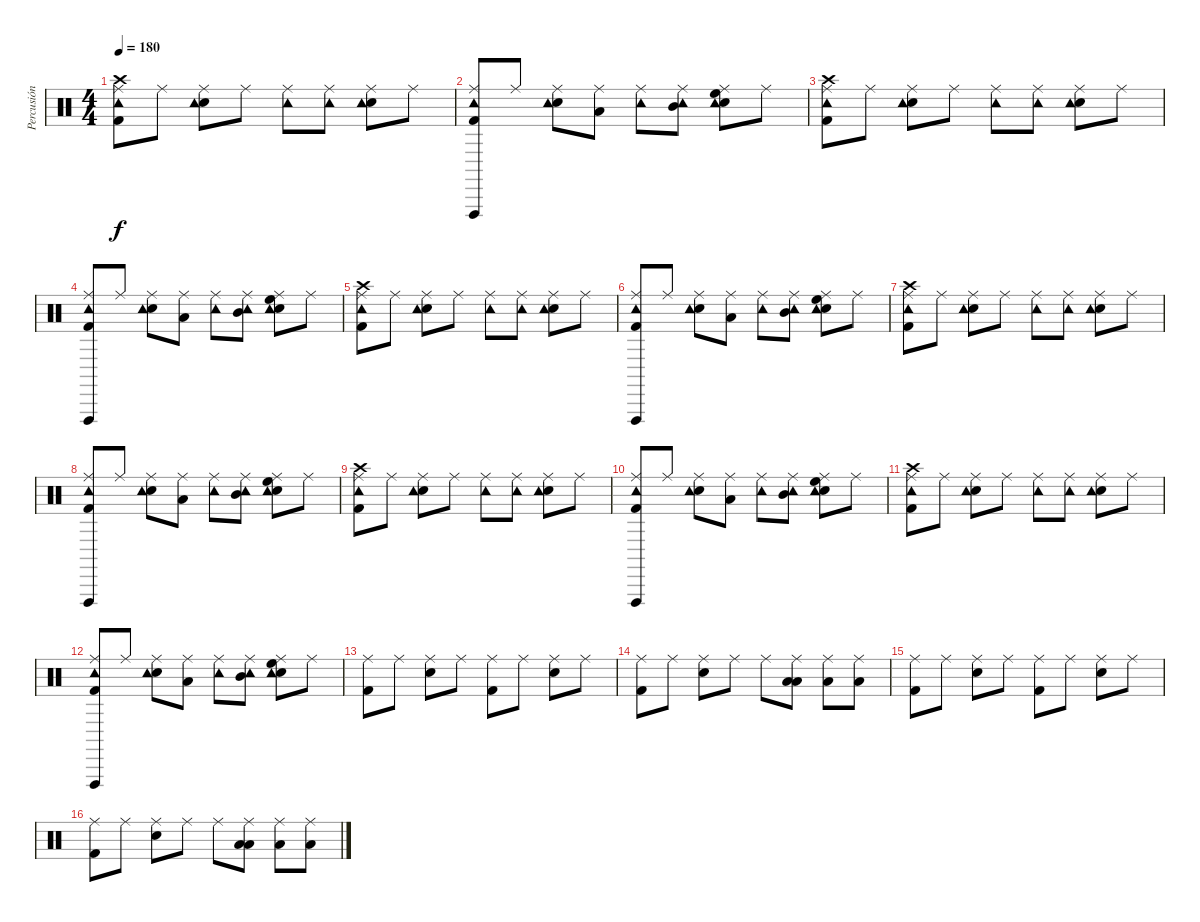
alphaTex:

\track ("Percusión" "Percusión") {instrument percussion}
\staff {score}
\articulation defaults
\ts (4 4)
\tempo 180
\clef neutral
\ks c
("Crash high (hit)" "Ride (middle)" "Kick (hit) 2" "Tambourine (hit)").8{dy f} "Ride (middle)".8 ("Electric Snare (hit)" "Ride (middle)" "Tambourine (hit)").8 "Ride (middle)".8 ("Ride (middle)" "Tambourine (hit)").8 ("Ride (middle)" "Tambourine (hit)").8 ("Electric Snare (hit)" "Ride (middle)" "Tambourine (hit)").8 "Ride (middle)".8 |
("Kick (hit) 2" "Tambourine (hit)" "Ride (middle)" "Vibraslap (hit)").8 "Ride (middle)".8 ("Electric Snare (hit)" "Ride (middle)" "Tambourine (hit)").8 ("Ride (middle)" "Low Tom (hit)").8 ("Ride (middle)" "Tambourine (hit)").8 ("Ride (middle)" "Tambourine (hit)" "Mid Tom (hit)").8 ("Electric Snare (hit)" "Ride (middle)" "Tambourine (hit)" "High Floor Tom (hit)").8 "Ride (middle)".8 |
("Crash high (hit)" "Ride (middle)" "Kick (hit) 2" "Tambourine (hit)").8 "Ride (middle)".8 ("Electric Snare (hit)" "Ride (middle)" "Tambourine (hit)").8 "Ride (middle)".8 ("Ride (middle)" "Tambourine (hit)").8 ("Ride (middle)" "Tambourine (hit)").8 ("Electric Snare (hit)" "Ride (middle)" "Tambourine (hit)").8 "Ride (middle)".8 |
("Kick (hit) 2" "Tambourine (hit)" "Ride (middle)" "Vibraslap (hit)").8 "Ride (middle)".8 ("Electric Snare (hit)" "Ride (middle)" "Tambourine (hit)").8 ("Ride (middle)" "Low Tom (hit)").8 ("Ride (middle)" "Tambourine (hit)").8 ("Ride (middle)" "Tambourine (hit)" "Mid Tom (hit)").8 ("Electric Snare (hit)" "Ride (middle)" "Tambourine (hit)" "High Floor Tom (hit)").8 "Ride (middle)".8 |
("Crash high (hit)" "Ride (middle)" "Kick (hit) 2" "Tambourine (hit)").8 "Ride (middle)".8 ("Electric Snare (hit)" "Ride (middle)" "Tambourine (hit)").8 "Ride (middle)".8 ("Ride (middle)" "Tambourine (hit)").8 ("Ride (middle)" "Tambourine (hit)").8 ("Electric Snare (hit)" "Ride (middle)" "Tambourine (hit)").8 "Ride (middle)".8 |
("Kick (hit) 2" "Tambourine (hit)" "Ride (middle)" "Vibraslap (hit)").8 "Ride (middle)".8 ("Electric Snare (hit)" "Ride (middle)" "Tambourine (hit)").8 ("Ride (middle)" "Low Tom (hit)").8 ("Ride (middle)" "Tambourine (hit)").8 ("Ride (middle)" "Tambourine (hit)" "Mid Tom (hit)").8 ("Electric Snare (hit)" "Ride (middle)" "Tambourine (hit)" "High Floor Tom (hit)").8 "Ride (middle)".8 |
("Crash high (hit)" "Ride (middle)" "Kick (hit) 2" "Tambourine (hit)").8 "Ride (middle)".8 ("Electric Snare (hit)" "Ride (middle)" "Tambourine (hit)").8 "Ride (middle)".8 ("Ride (middle)" "Tambourine (hit)").8 ("Ride (middle)" "Tambourine (hit)").8 ("Electric Snare (hit)" "Ride (middle)" "Tambourine (hit)").8 "Ride (middle)".8 |
("Kick (hit) 2" "Tambourine (hit)" "Ride (middle)" "Vibraslap (hit)").8 "Ride (middle)".8 ("Electric Snare (hit)" "Ride (middle)" "Tambourine (hit)").8 ("Ride (middle)" "Low Tom (hit)").8 ("Ride (middle)" "Tambourine (hit)").8 ("Ride (middle)" "Tambourine (hit)" "Mid Tom (hit)").8 ("Electric Snare (hit)" "Ride (middle)" "Tambourine (hit)" "High Floor Tom (hit)").8 "Ride (middle)".8 |
("Crash high (hit)" "Ride (middle)" "Kick (hit) 2" "Tambourine (hit)").8 "Ride (middle)".8 ("Electric Snare (hit)" "Ride (middle)" "Tambourine (hit)").8 "Ride (middle)".8 ("Ride (middle)" "Tambourine (hit)").8 ("Ride (middle)" "Tambourine (hit)").8 ("Electric Snare (hit)" "Ride (middle)" "Tambourine (hit)").8 "Ride (middle)".8 |
("Kick (hit) 2" "Tambourine (hit)" "Ride (middle)" "Vibraslap (hit)").8 "Ride (middle)".8 ("Electric Snare (hit)" "Ride (middle)" "Tambourine (hit)").8 ("Ride (middle)" "Low Tom (hit)").8 ("Ride (middle)" "Tambourine (hit)").8 ("Ride (middle)" "Tambourine (hit)" "Mid Tom (hit)").8 ("Electric Snare (hit)" "Ride (middle)" "Tambourine (hit)" "High Floor Tom (hit)").8 "Ride (middle)".8 |
("Crash high (hit)" "Ride (middle)" "Kick (hit) 2" "Tambourine (hit)").8 "Ride (middle)".8 ("Electric Snare (hit)" "Ride (middle)" "Tambourine (hit)").8 "Ride (middle)".8 ("Ride (middle)" "Tambourine (hit)").8 ("Ride (middle)" "Tambourine (hit)").8 ("Electric Snare (hit)" "Ride (middle)" "Tambourine (hit)").8 "Ride (middle)".8 |
("Kick (hit) 2" "Tambourine (hit)" "Ride (middle)" "Vibraslap (hit)").8 "Ride (middle)".8 ("Electric Snare (hit)" "Ride (middle)" "Tambourine (hit)").8 ("Ride (middle)" "Low Tom (hit)").8 ("Ride (middle)" "Tambourine (hit)").8 ("Ride (middle)" "Tambourine (hit)" "Mid Tom (hit)").8 ("Electric Snare (hit)" "Ride (middle)" "Tambourine (hit)" "High Floor Tom (hit)").8 "Ride (middle)".8 |
("Kick (hit) 2" "Ride (middle)").8 "Ride (middle)".8 ("Electric Snare (hit)" "Ride (middle)").8 "Ride (middle)".8 ("Kick (hit) 2" "Ride (middle)").8 "Ride (middle)".8 ("Electric Snare (hit)" "Ride (middle)").8 "Ride (middle)".8 |
("Kick (hit) 2" "Ride (middle)").8 "Ride (middle)".8 ("Electric Snare (hit)" "Ride (middle)").8 "Ride (middle)".8 "Ride (middle)".8 ("Low Floor Tom (hit)" "Ride (middle)" "Low Tom (hit)").8 ("Ride (middle)" "Low Tom (hit)").8 ("Ride (middle)" "Low Tom (hit)").8 |
("Kick (hit) 2" "Ride (middle)").8 "Ride (middle)".8 ("Electric Snare (hit)" "Ride (middle)").8 "Ride (middle)".8 ("Kick (hit) 2" "Ride (middle)").8 "Ride (middle)".8 ("Electric Snare (hit)" "Ride (middle)").8 "Ride (middle)".8 |
("Kick (hit) 2" "Ride (middle)").8 "Ride (middle)".8 ("Electric Snare (hit)" "Ride (middle)").8 "Ride (middle)".8 "Ride (middle)".8 ("Low Floor Tom (hit)" "Ride (middle)" "Low Tom (hit)").8 ("Ride (middle)" "Low Tom (hit)").8 ("Ride (middle)" "Low Tom (hit)").8
